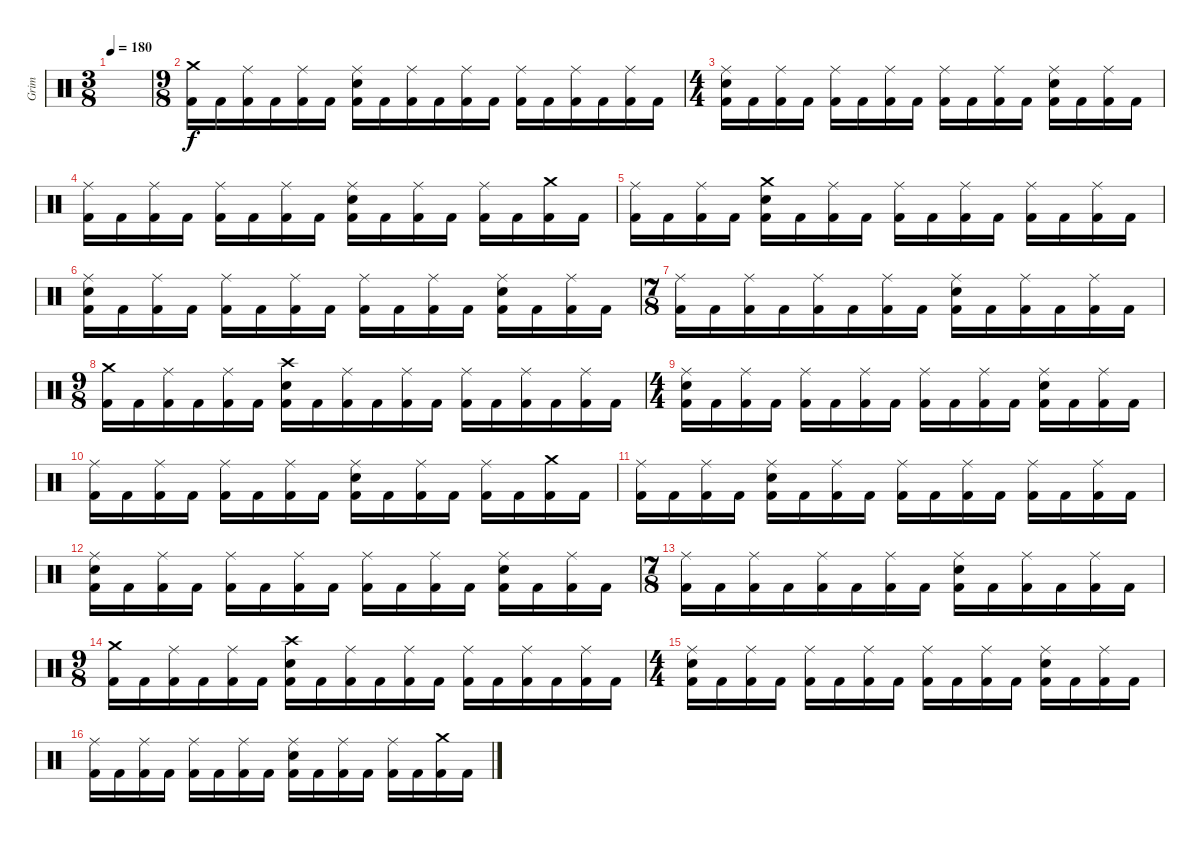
\track ("Grim" "Grim") {instrument percussion}
\staff {score}
\articulation defaults
\ts (3 8)
\tempo 180
\clef neutral
\ks c
|
\ts (9 8)
("Kick (hit) 2" "Crash medium (hit)").16 "Kick (hit) 2".16 ("Kick (hit) 2" "Ride (middle)").16 "Kick (hit) 2".16 ("Kick (hit) 2" "Ride (middle)").16 "Kick (hit) 2".16 ("Kick (hit) 2" "Electric Snare (hit)" "Ride (middle)").16 "Kick (hit) 2".16 ("Kick (hit) 2" "Ride (middle)").16 "Kick (hit) 2".16 ("Kick (hit) 2" "Ride (middle)").16 "Kick (hit) 2".16 ("Kick (hit) 2" "Ride (middle)").16 "Kick (hit) 2".16 ("Kick (hit) 2" "Ride (middle)").16 "Kick (hit) 2".16 ("Kick (hit) 2" "Ride (middle)").16 "Kick (hit) 2".16 |
\ts (4 4)
("Kick (hit) 2" "Electric Snare (hit)" "Ride (middle)").16 "Kick (hit) 2".16 ("Kick (hit) 2" "Ride (middle)").16 "Kick (hit) 2".16 ("Kick (hit) 2" "Ride (middle)").16 "Kick (hit) 2".16 ("Kick (hit) 2" "Ride (middle)").16 "Kick (hit) 2".16 ("Kick (hit) 2" "Ride (middle)").16 "Kick (hit) 2".16 ("Kick (hit) 2" "Ride (middle)").16 "Kick (hit) 2".16 ("Kick (hit) 2" "Electric Snare (hit)" "Ride (middle)").16 "Kick (hit) 2".16 ("Kick (hit) 2" "Ride (middle)").16 "Kick (hit) 2".16 |
("Kick (hit) 2" "Ride (middle)").16 "Kick (hit) 2".16 ("Kick (hit) 2" "Ride (middle)").16 "Kick (hit) 2".16 ("Kick (hit) 2" "Ride (middle)").16 "Kick (hit) 2".16 ("Kick (hit) 2" "Ride (middle)").16 "Kick (hit) 2".16 ("Kick (hit) 2" "Electric Snare (hit)" "Ride (middle)").16 "Kick (hit) 2".16 ("Kick (hit) 2" "Ride (middle)").16 "Kick (hit) 2".16 ("Kick (hit) 2" "Ride (middle)").16 "Kick (hit) 2".16 ("Kick (hit) 2" "Crash medium (hit)").16 "Kick (hit) 2".16 |
("Kick (hit) 2" "Ride (middle)").16 "Kick (hit) 2".16 ("Kick (hit) 2" "Ride (middle)").16 "Kick (hit) 2".16 ("Kick (hit) 2" "Electric Snare (hit)" "Crash medium (hit)").16 "Kick (hit) 2".16 ("Kick (hit) 2" "Ride (middle)").16 "Kick (hit) 2".16 ("Kick (hit) 2" "Ride (middle)").16 "Kick (hit) 2".16 ("Kick (hit) 2" "Ride (middle)").16 "Kick (hit) 2".16 ("Kick (hit) 2" "Ride (middle)").16 "Kick (hit) 2".16 ("Kick (hit) 2" "Ride (middle)").16 "Kick (hit) 2".16 |
("Kick (hit) 2" "Electric Snare (hit)" "Ride (middle)").16 "Kick (hit) 2".16 ("Kick (hit) 2" "Ride (middle)").16 "Kick (hit) 2".16 ("Kick (hit) 2" "Ride (middle)").16 "Kick (hit) 2".16 ("Kick (hit) 2" "Ride (middle)").16 "Kick (hit) 2".16 ("Kick (hit) 2" "Ride (middle)").16 "Kick (hit) 2".16 ("Kick (hit) 2" "Ride (middle)").16 "Kick (hit) 2".16 ("Kick (hit) 2" "Electric Snare (hit)" "Ride (middle)").16 "Kick (hit) 2".16 ("Kick (hit) 2" "Ride (middle)").16 "Kick (hit) 2".16 |
\ts (7 8)
("Kick (hit) 2" "Ride (middle)").16 "Kick (hit) 2".16 ("Kick (hit) 2" "Ride (middle)").16 "Kick (hit) 2".16 ("Kick (hit) 2" "Ride (middle)").16 "Kick (hit) 2".16 ("Kick (hit) 2" "Ride (middle)").16 "Kick (hit) 2".16 ("Kick (hit) 2" "Electric Snare (hit)" "Ride (middle)").16 "Kick (hit) 2".16 ("Kick (hit) 2" "Ride (middle)").16 "Kick (hit) 2".16 ("Kick (hit) 2" "Ride (middle)").16 "Kick (hit) 2".16 |
\ts (9 8)
("Kick (hit) 2" "Crash medium (hit)").16 "Kick (hit) 2".16 ("Kick (hit) 2" "Ride (middle)").16 "Kick (hit) 2".16 ("Kick (hit) 2" "Ride (middle)").16 "Kick (hit) 2".16 ("Kick (hit) 2" "Electric Snare (hit)" "Crash high (hit)").16 "Kick (hit) 2".16 ("Kick (hit) 2" "Ride (middle)").16 "Kick (hit) 2".16 ("Kick (hit) 2" "Ride (middle)").16 "Kick (hit) 2".16 ("Kick (hit) 2" "Ride (middle)").16 "Kick (hit) 2".16 ("Kick (hit) 2" "Ride (middle)").16 "Kick (hit) 2".16 ("Kick (hit) 2" "Ride (middle)").16 "Kick (hit) 2".16 |
\ts (4 4)
("Kick (hit) 2" "Electric Snare (hit)" "Ride (middle)").16 "Kick (hit) 2".16 ("Kick (hit) 2" "Ride (middle)").16 "Kick (hit) 2".16 ("Kick (hit) 2" "Ride (middle)").16 "Kick (hit) 2".16 ("Kick (hit) 2" "Ride (middle)").16 "Kick (hit) 2".16 ("Kick (hit) 2" "Ride (middle)").16 "Kick (hit) 2".16 ("Kick (hit) 2" "Ride (middle)").16 "Kick (hit) 2".16 ("Kick (hit) 2" "Electric Snare (hit)" "Ride (middle)").16 "Kick (hit) 2".16 ("Kick (hit) 2" "Ride (middle)").16 "Kick (hit) 2".16 |
("Kick (hit) 2" "Ride (middle)").16 "Kick (hit) 2".16 ("Kick (hit) 2" "Ride (middle)").16 "Kick (hit) 2".16 ("Kick (hit) 2" "Ride (middle)").16 "Kick (hit) 2".16 ("Kick (hit) 2" "Ride (middle)").16 "Kick (hit) 2".16 ("Kick (hit) 2" "Electric Snare (hit)" "Ride (middle)").16 "Kick (hit) 2".16 ("Kick (hit) 2" "Ride (middle)").16 "Kick (hit) 2".16 ("Kick (hit) 2" "Ride (middle)").16 "Kick (hit) 2".16 ("Kick (hit) 2" "Crash medium (hit)").16 "Kick (hit) 2".16 |
("Kick (hit) 2" "Ride (middle)").16 "Kick (hit) 2".16 ("Kick (hit) 2" "Ride (middle)").16 "Kick (hit) 2".16 ("Kick (hit) 2" "Electric Snare (hit)" "Ride (middle)").16 "Kick (hit) 2".16 ("Kick (hit) 2" "Ride (middle)").16 "Kick (hit) 2".16 ("Kick (hit) 2" "Ride (middle)").16 "Kick (hit) 2".16 ("Kick (hit) 2" "Ride (middle)").16 "Kick (hit) 2".16 ("Kick (hit) 2" "Ride (middle)").16 "Kick (hit) 2".16 ("Kick (hit) 2" "Ride (middle)").16 "Kick (hit) 2".16 |
("Kick (hit) 2" "Electric Snare (hit)" "Ride (middle)").16 "Kick (hit) 2".16 ("Kick (hit) 2" "Ride (middle)").16 "Kick (hit) 2".16 ("Kick (hit) 2" "Ride (middle)").16 "Kick (hit) 2".16 ("Kick (hit) 2" "Ride (middle)").16 "Kick (hit) 2".16 ("Kick (hit) 2" "Ride (middle)").16 "Kick (hit) 2".16 ("Kick (hit) 2" "Ride (middle)").16 "Kick (hit) 2".16 ("Kick (hit) 2" "Electric Snare (hit)" "Ride (middle)").16 "Kick (hit) 2".16 ("Kick (hit) 2" "Ride (middle)").16 "Kick (hit) 2".16 |
\ts (7 8)
("Kick (hit) 2" "Ride (middle)").16 "Kick (hit) 2".16 ("Kick (hit) 2" "Ride (middle)").16 "Kick (hit) 2".16 ("Kick (hit) 2" "Ride (middle)").16 "Kick (hit) 2".16 ("Kick (hit) 2" "Ride (middle)").16 "Kick (hit) 2".16 ("Kick (hit) 2" "Electric Snare (hit)" "Ride (middle)").16 "Kick (hit) 2".16 ("Kick (hit) 2" "Ride (middle)").16 "Kick (hit) 2".16 ("Kick (hit) 2" "Ride (middle)").16 "Kick (hit) 2".16 |
\ts (9 8)
("Kick (hit) 2" "Crash medium (hit)").16 "Kick (hit) 2".16 ("Kick (hit) 2" "Ride (middle)").16 "Kick (hit) 2".16 ("Kick (hit) 2" "Ride (middle)").16 "Kick (hit) 2".16 ("Kick (hit) 2" "Electric Snare (hit)" "Crash high (hit)").16 "Kick (hit) 2".16 ("Kick (hit) 2" "Ride (middle)").16 "Kick (hit) 2".16 ("Kick (hit) 2" "Ride (middle)").16 "Kick (hit) 2".16 ("Kick (hit) 2" "Ride (middle)").16 "Kick (hit) 2".16 ("Kick (hit) 2" "Ride (middle)").16 "Kick (hit) 2".16 ("Kick (hit) 2" "Ride (middle)").16 "Kick (hit) 2".16 |
\ts (4 4)
("Kick (hit) 2" "Electric Snare (hit)" "Ride (middle)").16 "Kick (hit) 2".16 ("Kick (hit) 2" "Ride (middle)").16 "Kick (hit) 2".16 ("Kick (hit) 2" "Ride (middle)").16 "Kick (hit) 2".16 ("Kick (hit) 2" "Ride (middle)").16 "Kick (hit) 2".16 ("Kick (hit) 2" "Ride (middle)").16 "Kick (hit) 2".16 ("Kick (hit) 2" "Ride (middle)").16 "Kick (hit) 2".16 ("Kick (hit) 2" "Electric Snare (hit)" "Ride (middle)").16 "Kick (hit) 2".16 ("Kick (hit) 2" "Ride (middle)").16 "Kick (hit) 2".16 |
("Kick (hit) 2" "Ride (middle)").16 "Kick (hit) 2".16 ("Kick (hit) 2" "Ride (middle)").16 "Kick (hit) 2".16 ("Kick (hit) 2" "Ride (middle)").16 "Kick (hit) 2".16 ("Kick (hit) 2" "Ride (middle)").16 "Kick (hit) 2".16 ("Kick (hit) 2" "Electric Snare (hit)" "Ride (middle)").16 "Kick (hit) 2".16 ("Kick (hit) 2" "Ride (middle)").16 "Kick (hit) 2".16 ("Kick (hit) 2" "Ride (middle)").16 "Kick (hit) 2".16 ("Kick (hit) 2" "Crash medium (hit)").16 "Kick (hit) 2".16
